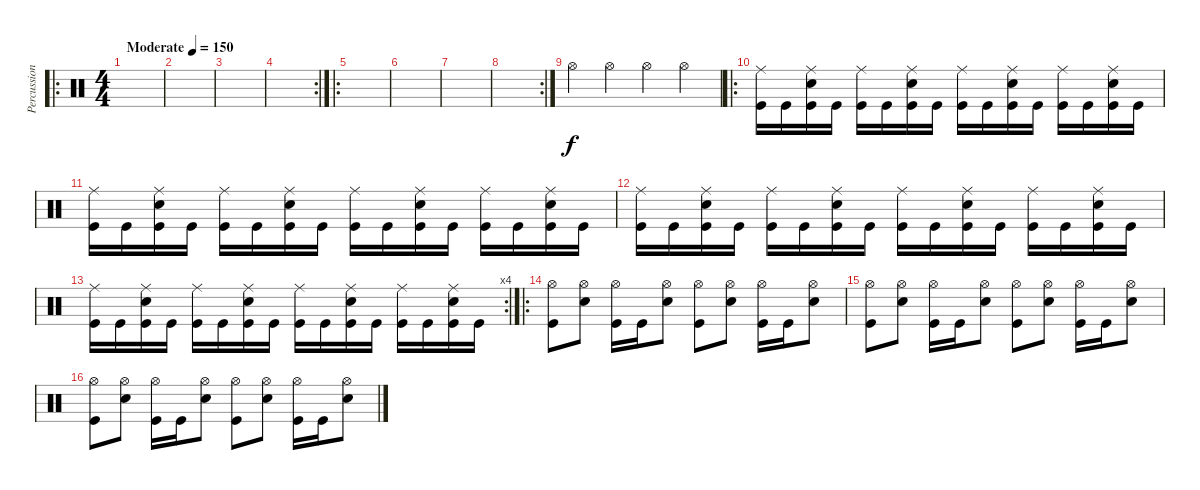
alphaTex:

\track ("Percussion" "Percussion") {instrument percussion}
\staff {score}
\articulation defaults
\ro
\ts (4 4)
\tempo (150 "Moderate")
\clef neutral
\ks c
|
|
|
\rc 2
|
\ro
|
|
|
\rc 2
|
"Hi-Hat (open)".4 "Hi-Hat (open)".4 "Hi-Hat (open)".4 "Hi-Hat (open)".4 |
\ro
("Ride (middle)" "Kick (hit)").16 "Kick (hit)".16 ("Ride (middle)" "Snare (hit) 2" "Kick (hit)").16 "Kick (hit)".16 ("Ride (middle)" "Kick (hit)").16 "Kick (hit)".16 ("Ride (middle)" "Snare (hit) 2" "Kick (hit)").16 "Kick (hit)".16 ("Ride (middle)" "Kick (hit)").16 "Kick (hit)".16 ("Ride (middle)" "Snare (hit) 2" "Kick (hit)").16 "Kick (hit)".16 ("Ride (middle)" "Kick (hit)").16 "Kick (hit)".16 ("Ride (middle)" "Snare (hit) 2" "Kick (hit)").16 "Kick (hit)".16 |
("Ride (middle)" "Kick (hit)").16 "Kick (hit)".16 ("Ride (middle)" "Snare (hit) 2" "Kick (hit)").16 "Kick (hit)".16 ("Ride (middle)" "Kick (hit)").16 "Kick (hit)".16 ("Ride (middle)" "Snare (hit) 2" "Kick (hit)").16 "Kick (hit)".16 ("Ride (middle)" "Kick (hit)").16 "Kick (hit)".16 ("Ride (middle)" "Snare (hit) 2" "Kick (hit)").16 "Kick (hit)".16 ("Ride (middle)" "Kick (hit)").16 "Kick (hit)".16 ("Ride (middle)" "Snare (hit) 2" "Kick (hit)").16 "Kick (hit)".16 |
("Ride (middle)" "Kick (hit)").16 "Kick (hit)".16 ("Ride (middle)" "Snare (hit) 2" "Kick (hit)").16 "Kick (hit)".16 ("Ride (middle)" "Kick (hit)").16 "Kick (hit)".16 ("Ride (middle)" "Snare (hit) 2" "Kick (hit)").16 "Kick (hit)".16 ("Ride (middle)" "Kick (hit)").16 "Kick (hit)".16 ("Ride (middle)" "Snare (hit) 2" "Kick (hit)").16 "Kick (hit)".16 ("Ride (middle)" "Kick (hit)").16 "Kick (hit)".16 ("Ride (middle)" "Snare (hit) 2" "Kick (hit)").16 "Kick (hit)".16 |
\rc 4
("Ride (middle)" "Kick (hit)").16 "Kick (hit)".16 ("Ride (middle)" "Snare (hit) 2" "Kick (hit)").16 "Kick (hit)".16 ("Ride (middle)" "Kick (hit)").16 "Kick (hit)".16 ("Ride (middle)" "Snare (hit) 2" "Kick (hit)").16 "Kick (hit)".16 ("Ride (middle)" "Kick (hit)").16 "Kick (hit)".16 ("Ride (middle)" "Snare (hit) 2" "Kick (hit)").16 "Kick (hit)".16 ("Ride (middle)" "Kick (hit)").16 "Kick (hit)".16 ("Ride (middle)" "Snare (hit) 2" "Kick (hit)").16 "Kick (hit)".16 |
\ro
("Hi-Hat (open)" "Kick (hit)").8 ("Hi-Hat (open)" "Snare (hit) 2").8 ("Hi-Hat (open)" "Kick (hit)").16 "Kick (hit)".16 ("Hi-Hat (open)" "Snare (hit) 2").8 ("Hi-Hat (open)" "Kick (hit)").8 ("Hi-Hat (open)" "Snare (hit) 2").8 ("Hi-Hat (open)" "Kick (hit)").16 "Kick (hit)".16 ("Hi-Hat (open)" "Snare (hit) 2").8 |
("Hi-Hat (open)" "Kick (hit)").8 ("Hi-Hat (open)" "Snare (hit) 2").8 ("Hi-Hat (open)" "Kick (hit)").16 "Kick (hit)".16 ("Hi-Hat (open)" "Snare (hit) 2").8 ("Hi-Hat (open)" "Kick (hit)").8 ("Hi-Hat (open)" "Snare (hit) 2").8 ("Hi-Hat (open)" "Kick (hit)").16 "Kick (hit)".16 ("Hi-Hat (open)" "Snare (hit) 2").8 |
("Hi-Hat (open)" "Kick (hit)").8 ("Hi-Hat (open)" "Snare (hit) 2").8 ("Hi-Hat (open)" "Kick (hit)").16 "Kick (hit)".16 ("Hi-Hat (open)" "Snare (hit) 2").8 ("Hi-Hat (open)" "Kick (hit)").8 ("Hi-Hat (open)" "Snare (hit) 2").8 ("Hi-Hat (open)" "Kick (hit)").16 "Kick (hit)".16 ("Hi-Hat (open)" "Snare (hit) 2").8
